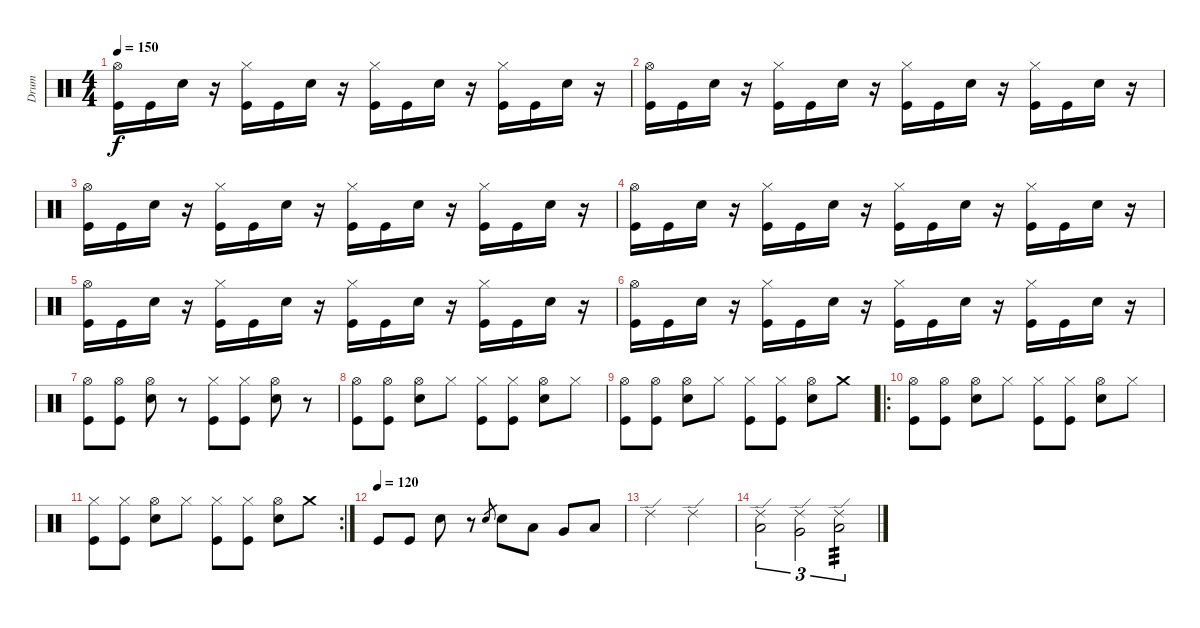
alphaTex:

\track ("Drum" "Drum") {instrument percussion}
\staff {score}
\articulation defaults
\ts (4 4)
\tempo 150
\clef neutral
\ks c
("Hi-Hat (open)" "Kick (hit)").16{dy f} "Kick (hit)".16 "Electric Snare (hit)".16 r.16 ("Hi-Hat (closed)" "Kick (hit)").16 "Kick (hit)".16 "Electric Snare (hit)".16 r.16 ("Hi-Hat (closed)" "Kick (hit)").16 "Kick (hit)".16 "Electric Snare (hit)".16 r.16 ("Hi-Hat (closed)" "Kick (hit)").16 "Kick (hit)".16 "Electric Snare (hit)".16 r.16 |
("Hi-Hat (open)" "Kick (hit)").16 "Kick (hit)".16 "Electric Snare (hit)".16 r.16 ("Hi-Hat (closed)" "Kick (hit)").16 "Kick (hit)".16 "Electric Snare (hit)".16 r.16 ("Hi-Hat (closed)" "Kick (hit)").16 "Kick (hit)".16 "Electric Snare (hit)".16 r.16 ("Hi-Hat (closed)" "Kick (hit)").16 "Kick (hit)".16 "Electric Snare (hit)".16 r.16 |
("Hi-Hat (open)" "Kick (hit)").16 "Kick (hit)".16 "Electric Snare (hit)".16 r.16 ("Hi-Hat (closed)" "Kick (hit)").16 "Kick (hit)".16 "Electric Snare (hit)".16 r.16 ("Hi-Hat (closed)" "Kick (hit)").16 "Kick (hit)".16 "Electric Snare (hit)".16 r.16 ("Hi-Hat (closed)" "Kick (hit)").16 "Kick (hit)".16 "Electric Snare (hit)".16 r.16 |
("Hi-Hat (open)" "Kick (hit)").16 "Kick (hit)".16 "Electric Snare (hit)".16 r.16 ("Hi-Hat (closed)" "Kick (hit)").16 "Kick (hit)".16 "Electric Snare (hit)".16 r.16 ("Hi-Hat (closed)" "Kick (hit)").16 "Kick (hit)".16 "Electric Snare (hit)".16 r.16 ("Hi-Hat (closed)" "Kick (hit)").16 "Kick (hit)".16 "Electric Snare (hit)".16 r.16 |
("Hi-Hat (open)" "Kick (hit)").16 "Kick (hit)".16 "Electric Snare (hit)".16 r.16 ("Hi-Hat (closed)" "Kick (hit)").16 "Kick (hit)".16 "Electric Snare (hit)".16 r.16 ("Hi-Hat (closed)" "Kick (hit)").16 "Kick (hit)".16 "Electric Snare (hit)".16 r.16 ("Hi-Hat (closed)" "Kick (hit)").16 "Kick (hit)".16 "Electric Snare (hit)".16 r.16 |
("Hi-Hat (open)" "Kick (hit)").16 "Kick (hit)".16 "Electric Snare (hit)".16 r.16 ("Hi-Hat (closed)" "Kick (hit)").16 "Kick (hit)".16 "Electric Snare (hit)".16 r.16 ("Hi-Hat (closed)" "Kick (hit)").16 "Kick (hit)".16 "Electric Snare (hit)".16 r.16 ("Hi-Hat (closed)" "Kick (hit)").16 "Kick (hit)".16 "Electric Snare (hit)".16 r.16 |
("Hi-Hat (open)" "Kick (hit)").8 ("Hi-Hat (open)" "Kick (hit)").8 ("Hi-Hat (open)" "Electric Snare (hit)").8 r.8 ("Hi-Hat (closed)" "Kick (hit)").8 ("Hi-Hat (closed)" "Kick (hit)").8 ("Hi-Hat (open)" "Electric Snare (hit)").8 r.8 |
("Hi-Hat (open)" "Kick (hit)").8 ("Hi-Hat (open)" "Kick (hit)").8 ("Hi-Hat (open)" "Electric Snare (hit)").8 "Hi-Hat (closed)".8 ("Hi-Hat (closed)" "Kick (hit)").8 ("Hi-Hat (closed)" "Kick (hit)").8 ("Hi-Hat (open)" "Electric Snare (hit)").8 "Hi-Hat (closed)".8 |
("Hi-Hat (open)" "Kick (hit)").8 ("Hi-Hat (open)" "Kick (hit)").8 ("Hi-Hat (open)" "Electric Snare (hit)").8 "Hi-Hat (closed)".8 ("Hi-Hat (closed)" "Kick (hit)").8 ("Hi-Hat (closed)" "Kick (hit)").8 ("Hi-Hat (open)" "Electric Snare (hit)").8 "Crash medium (hit)".8 |
\ro
("Hi-Hat (open)" "Kick (hit)").8 ("Hi-Hat (open)" "Kick (hit)").8 ("Hi-Hat (open)" "Electric Snare (hit)").8 "Hi-Hat (closed)".8 ("Hi-Hat (closed)" "Kick (hit)").8 ("Hi-Hat (closed)" "Kick (hit)").8 ("Hi-Hat (open)" "Electric Snare (hit)").8 "Hi-Hat (closed)".8 |
\rc 2
("Hi-Hat (closed)" "Kick (hit)").8 ("Hi-Hat (closed)" "Kick (hit)").8 ("Hi-Hat (open)" "Electric Snare (hit)").8 "Hi-Hat (closed)".8 ("Hi-Hat (closed)" "Kick (hit)").8 ("Hi-Hat (closed)" "Kick (hit)").8 ("Hi-Hat (open)" "Electric Snare (hit)").8 "Crash medium (hit)".8 |
\tempo (120)
"Kick (hit)".8 "Kick (hit)".8 "Electric Snare (hit)".8 r.8 "Electric Snare (hit)".8{gr} "Electric Snare (hit)".8 "Low Tom (hit)".8 "Very Low Tom (hit)".8 "Low Floor Tom (hit)".8 |
"Ride (edge) 2".2 "Ride (edge) 2".2 |
("Ride (edge) 2" "Low Tom (hit)").2{tu (3 2)} ("Ride (edge) 2" "Very Low Tom (hit)").2{tu (3 2)} ("Ride (edge) 2" "Low Floor Tom (hit)").2{tu (3 2) tp 3}
